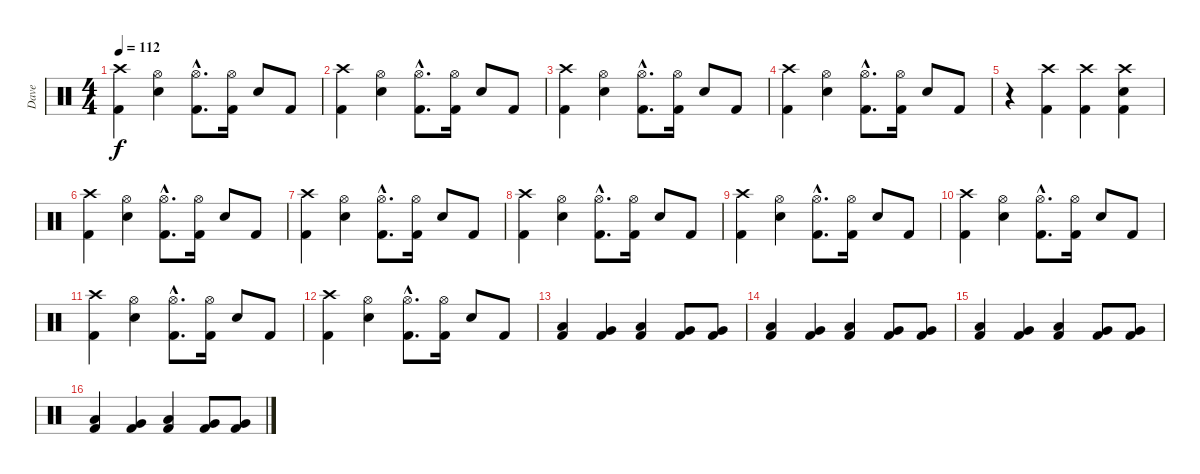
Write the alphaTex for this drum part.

\track ("Dave" "Dave") {instrument percussion}
\staff {score}
\articulation defaults
\ts (4 4)
\tempo 112
\clef neutral
\ks c
("Crash high (hit)" "Kick (hit) 2").4{dy f} ("Hi-Hat (open)" "Electric Snare (hit)").4 ("Hi-Hat (open)"{hac} "Kick (hit) 2"{hac}).8{d} ("Hi-Hat (open)" "Kick (hit) 2").16 "Electric Snare (hit)".8 "Kick (hit) 2".8 |
("Crash high (hit)" "Kick (hit) 2").4 ("Hi-Hat (open)" "Electric Snare (hit)").4 ("Hi-Hat (open)"{hac} "Kick (hit) 2"{hac}).8{d} ("Hi-Hat (open)" "Kick (hit) 2").16 "Electric Snare (hit)".8 "Kick (hit) 2".8 |
("Crash high (hit)" "Kick (hit) 2").4 ("Hi-Hat (open)" "Electric Snare (hit)").4 ("Hi-Hat (open)"{hac} "Kick (hit) 2"{hac}).8{d} ("Hi-Hat (open)" "Kick (hit) 2").16 "Electric Snare (hit)".8 "Kick (hit) 2".8 |
("Crash high (hit)" "Kick (hit) 2").4 ("Hi-Hat (open)" "Electric Snare (hit)").4 ("Hi-Hat (open)"{hac} "Kick (hit) 2"{hac}).8{d} ("Hi-Hat (open)" "Kick (hit) 2").16 "Electric Snare (hit)".8 "Kick (hit) 2".8 |
r.4 ("Crash high (hit)" "Kick (hit) 2").4 ("Crash high (hit)" "Kick (hit) 2").4 ("Crash high (hit)" "Electric Snare (hit)" "Kick (hit) 2").4 |
("Crash high (hit)" "Kick (hit) 2").4 ("Hi-Hat (open)" "Electric Snare (hit)").4 ("Hi-Hat (open)"{hac} "Kick (hit) 2"{hac}).8{d} ("Hi-Hat (open)" "Kick (hit) 2").16 "Electric Snare (hit)".8 "Kick (hit) 2".8 |
("Crash high (hit)" "Kick (hit) 2").4 ("Hi-Hat (open)" "Electric Snare (hit)").4 ("Hi-Hat (open)"{hac} "Kick (hit) 2"{hac}).8{d} ("Hi-Hat (open)" "Kick (hit) 2").16 "Electric Snare (hit)".8 "Kick (hit) 2".8 |
("Crash high (hit)" "Kick (hit) 2").4 ("Hi-Hat (open)" "Electric Snare (hit)").4 ("Hi-Hat (open)"{hac} "Kick (hit) 2"{hac}).8{d} ("Hi-Hat (open)" "Kick (hit) 2").16 "Electric Snare (hit)".8 "Kick (hit) 2".8 |
("Crash high (hit)" "Kick (hit) 2").4 ("Hi-Hat (open)" "Electric Snare (hit)").4 ("Hi-Hat (open)"{hac} "Kick (hit) 2"{hac}).8{d} ("Hi-Hat (open)" "Kick (hit) 2").16 "Electric Snare (hit)".8 "Kick (hit) 2".8 |
("Crash high (hit)" "Kick (hit) 2").4 ("Hi-Hat (open)" "Electric Snare (hit)").4 ("Hi-Hat (open)"{hac} "Kick (hit) 2"{hac}).8{d} ("Hi-Hat (open)" "Kick (hit) 2").16 "Electric Snare (hit)".8 "Kick (hit) 2".8 |
("Crash high (hit)" "Kick (hit) 2").4 ("Hi-Hat (open)" "Electric Snare (hit)").4 ("Hi-Hat (open)"{hac} "Kick (hit) 2"{hac}).8{d} ("Hi-Hat (open)" "Kick (hit) 2").16 "Electric Snare (hit)".8 "Kick (hit) 2".8 |
("Crash high (hit)" "Kick (hit) 2").4 ("Hi-Hat (open)" "Electric Snare (hit)").4 ("Hi-Hat (open)"{hac} "Kick (hit) 2"{hac}).8{d} ("Hi-Hat (open)" "Kick (hit) 2").16 "Electric Snare (hit)".8 "Kick (hit) 2".8 |
("Low Tom (hit)" "Kick (hit) 2").4 ("Very Low Tom (hit)" "Kick (hit) 2").4 ("Low Floor Tom (hit)" "Kick (hit) 2").4 ("Very Low Tom (hit)" "Kick (hit) 2").8 ("Very Low Tom (hit)" "Kick (hit) 2").8 |
("Low Tom (hit)" "Kick (hit) 2").4 ("Very Low Tom (hit)" "Kick (hit) 2").4 ("Low Floor Tom (hit)" "Kick (hit) 2").4 ("Very Low Tom (hit)" "Kick (hit) 2").8 ("Very Low Tom (hit)" "Kick (hit) 2").8 |
("Low Tom (hit)" "Kick (hit) 2").4 ("Very Low Tom (hit)" "Kick (hit) 2").4 ("Low Floor Tom (hit)" "Kick (hit) 2").4 ("Very Low Tom (hit)" "Kick (hit) 2").8 ("Very Low Tom (hit)" "Kick (hit) 2").8 |
("Low Tom (hit)" "Kick (hit) 2").4 ("Very Low Tom (hit)" "Kick (hit) 2").4 ("Low Floor Tom (hit)" "Kick (hit) 2").4 ("Very Low Tom (hit)" "Kick (hit) 2").8 ("Very Low Tom (hit)" "Kick (hit) 2").8
